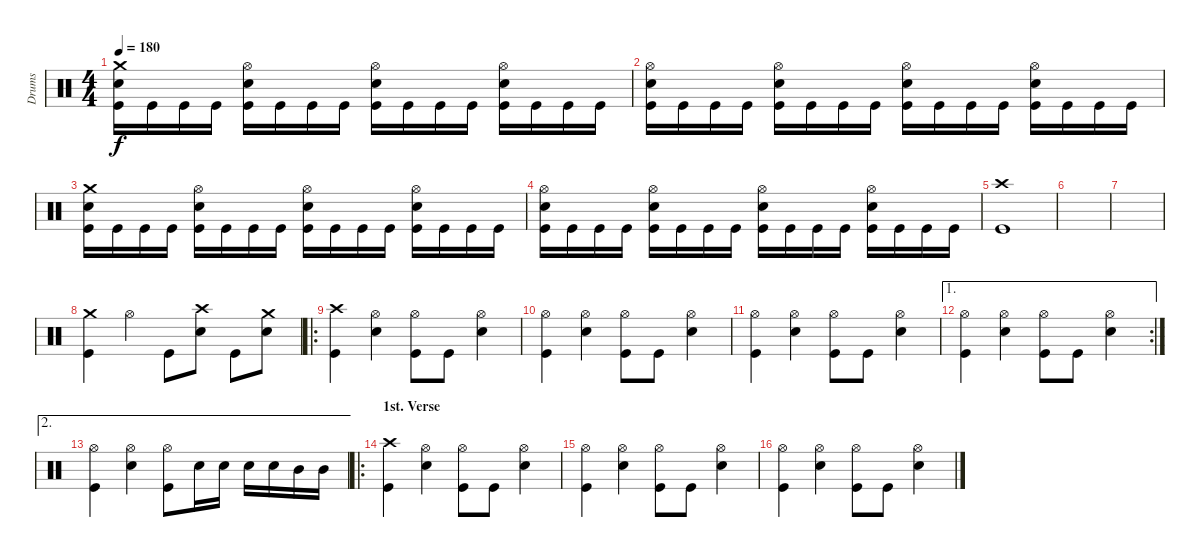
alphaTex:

\track ("Drums" "Drums") {instrument percussion}
\staff {score}
\articulation defaults
\ts (4 4)
\tempo 180
\clef neutral
\ks c
("Crash medium (hit)" "Snare (hit) 2" "Kick (hit)").16{dy f} "Kick (hit)".16 "Kick (hit)".16 "Kick (hit)".16 ("Hi-Hat (open)" "Snare (hit) 2" "Kick (hit)").16 "Kick (hit)".16 "Kick (hit)".16 "Kick (hit)".16 ("Hi-Hat (open)" "Snare (hit) 2" "Kick (hit)").16 "Kick (hit)".16 "Kick (hit)".16 "Kick (hit)".16 ("Hi-Hat (open)" "Snare (hit) 2" "Kick (hit)").16 "Kick (hit)".16 "Kick (hit)".16 "Kick (hit)".16 |
("Hi-Hat (open)" "Snare (hit) 2" "Kick (hit)").16 "Kick (hit)".16 "Kick (hit)".16 "Kick (hit)".16 ("Hi-Hat (open)" "Snare (hit) 2" "Kick (hit)").16 "Kick (hit)".16 "Kick (hit)".16 "Kick (hit)".16 ("Hi-Hat (open)" "Snare (hit) 2" "Kick (hit)").16 "Kick (hit)".16 "Kick (hit)".16 "Kick (hit)".16 ("Hi-Hat (open)" "Snare (hit) 2" "Kick (hit)").16 "Kick (hit)".16 "Kick (hit)".16 "Kick (hit)".16 |
("Crash medium (hit)" "Snare (hit) 2" "Kick (hit)").16 "Kick (hit)".16 "Kick (hit)".16 "Kick (hit)".16 ("Hi-Hat (open)" "Snare (hit) 2" "Kick (hit)").16 "Kick (hit)".16 "Kick (hit)".16 "Kick (hit)".16 ("Hi-Hat (open)" "Snare (hit) 2" "Kick (hit)").16 "Kick (hit)".16 "Kick (hit)".16 "Kick (hit)".16 ("Hi-Hat (open)" "Snare (hit) 2" "Kick (hit)").16 "Kick (hit)".16 "Kick (hit)".16 "Kick (hit)".16 |
("Hi-Hat (open)" "Snare (hit) 2" "Kick (hit)").16 "Kick (hit)".16 "Kick (hit)".16 "Kick (hit)".16 ("Hi-Hat (open)" "Snare (hit) 2" "Kick (hit)").16 "Kick (hit)".16 "Kick (hit)".16 "Kick (hit)".16 ("Hi-Hat (open)" "Snare (hit) 2" "Kick (hit)").16 "Kick (hit)".16 "Kick (hit)".16 "Kick (hit)".16 ("Hi-Hat (open)" "Snare (hit) 2" "Kick (hit)").16 "Kick (hit)".16 "Kick (hit)".16 "Kick (hit)".16 |
("Crash high (hit)" "Kick (hit)").1 |
|
|
("Crash medium (hit)" "Kick (hit)").4 "Hi-Hat (open)".4 "Kick (hit)".8 ("Crash high (hit)" "Snare (hit) 2").8 "Kick (hit)".8 ("Crash medium (hit)" "Snare (hit) 2").8 |
\ro
("Crash high (hit)" "Kick (hit)").4 ("Hi-Hat (open)" "Snare (hit) 2").4 ("Hi-Hat (open)" "Kick (hit)").8 "Kick (hit)".8 ("Hi-Hat (open)" "Snare (hit) 2").4 |
("Hi-Hat (open)" "Kick (hit)").4 ("Hi-Hat (open)" "Snare (hit) 2").4 ("Hi-Hat (open)" "Kick (hit)").8 "Kick (hit)".8 ("Hi-Hat (open)" "Snare (hit) 2").4 |
("Hi-Hat (open)" "Kick (hit)").4 ("Hi-Hat (open)" "Snare (hit) 2").4 ("Hi-Hat (open)" "Kick (hit)").8 "Kick (hit)".8 ("Hi-Hat (open)" "Snare (hit) 2").4 |
\ae 1
\rc 2
("Hi-Hat (open)" "Kick (hit)").4 ("Hi-Hat (open)" "Snare (hit) 2").4 ("Hi-Hat (open)" "Kick (hit)").8 "Kick (hit)".8 ("Hi-Hat (open)" "Snare (hit) 2").4 |
\ae 2
("Hi-Hat (open)" "Kick (hit)").4 ("Hi-Hat (open)" "Snare (hit) 2").4 ("Hi-Hat (open)" "Kick (hit)").8 "Snare (hit) 2".16 "Snare (hit) 2".16 "Snare (hit) 2".16 "Snare (hit) 2".16 "Mid Tom (hit)".16 "Mid Tom (hit)".16 |
\ro
\section ("" "1st. Verse")
("Crash high (hit)" "Kick (hit)").4 ("Hi-Hat (open)" "Snare (hit) 2").4 ("Hi-Hat (open)" "Kick (hit)").8 "Kick (hit)".8 ("Hi-Hat (open)" "Snare (hit) 2").4 |
("Hi-Hat (open)" "Kick (hit)").4 ("Hi-Hat (open)" "Snare (hit) 2").4 ("Hi-Hat (open)" "Kick (hit)").8 "Kick (hit)".8 ("Hi-Hat (open)" "Snare (hit) 2").4 |
("Hi-Hat (open)" "Kick (hit)").4 ("Hi-Hat (open)" "Snare (hit) 2").4 ("Hi-Hat (open)" "Kick (hit)").8 "Kick (hit)".8 ("Hi-Hat (open)" "Snare (hit) 2").4
